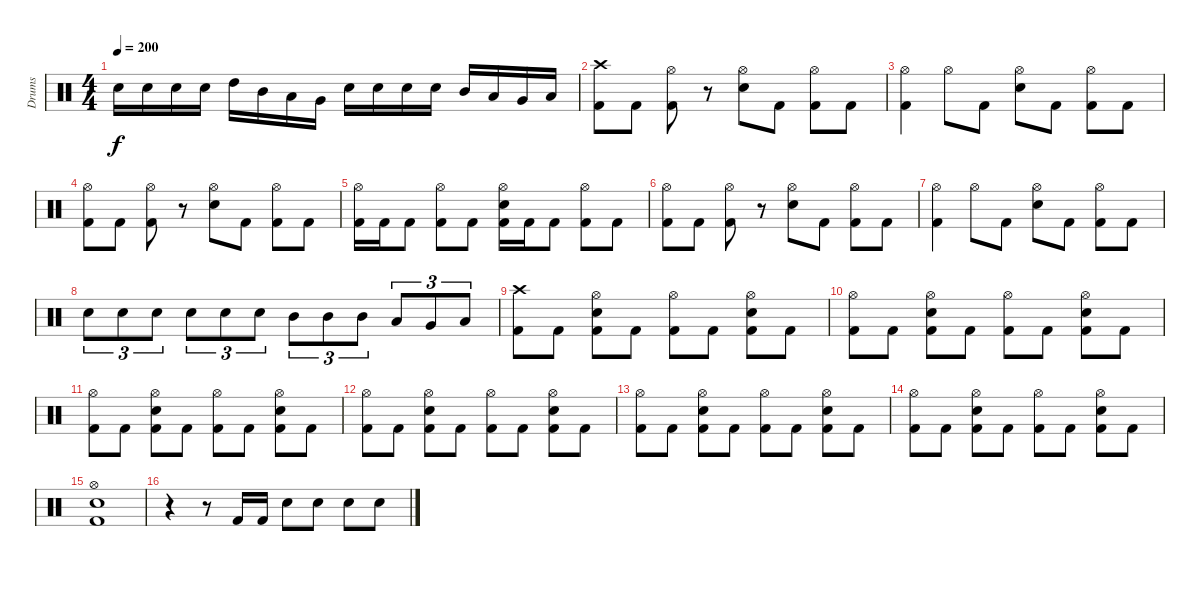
\track ("Drums" "Drums") {instrument percussion}
\staff {score}
\articulation defaults
\ts (4 4)
\tempo 200
\clef neutral
\ks c "Electric Snare (hit)".16{dy f} "Electric Snare (hit)".16 "Electric Snare (hit)".16 "Electric Snare (hit)".16 "High Tom (hit)".16 "Mid Tom (hit)".16 "Low Tom (hit)".16 "Very Low Tom (hit)".16 "Electric Snare (hit)".16 "Electric Snare (hit)".16 "Electric Snare (hit)".16 "Electric Snare (hit)".16 "Mid Tom (hit)".16 "Low Tom (hit)".16 "Very Low Tom (hit)".16 "Low Floor Tom (hit)".16
|
\section ("" "")
("Kick (hit) 2" "Crash high (hit)").8 "Kick (hit) 2".8 ("Kick (hit) 2" "Hi-Hat (open)").8 r.8 ("Electric Snare (hit)" "Hi-Hat (open)").8 "Kick (hit) 2".8 ("Kick (hit) 2" "Hi-Hat (open)").8 "Kick (hit) 2".8 |
("Kick (hit) 2" "Hi-Hat (open)").4 "Hi-Hat (open)".8 "Kick (hit) 2".8 ("Electric Snare (hit)" "Hi-Hat (open)").8 "Kick (hit) 2".8 ("Kick (hit) 2" "Hi-Hat (open)").8 "Kick (hit) 2".8 |
("Kick (hit) 2" "Hi-Hat (open)").8 "Kick (hit) 2".8 ("Kick (hit) 2" "Hi-Hat (open)").8 r.8 ("Electric Snare (hit)" "Hi-Hat (open)").8 "Kick (hit) 2".8 ("Kick (hit) 2" "Hi-Hat (open)").8 "Kick (hit) 2".8 |
("Kick (hit) 2" "Hi-Hat (open)").16 "Kick (hit) 2".16 "Kick (hit) 2".8 ("Kick (hit) 2" "Hi-Hat (open)").8 "Kick (hit) 2".8 ("Kick (hit) 2" "Electric Snare (hit)" "Hi-Hat (open)").16 "Kick (hit) 2".16 "Kick (hit) 2".8 ("Kick (hit) 2" "Hi-Hat (open)").8 "Kick (hit) 2".8 |
("Kick (hit) 2" "Hi-Hat (open)").8 "Kick (hit) 2".8 ("Kick (hit) 2" "Hi-Hat (open)").8 r.8 ("Electric Snare (hit)" "Hi-Hat (open)").8 "Kick (hit) 2".8 ("Kick (hit) 2" "Hi-Hat (open)").8 "Kick (hit) 2".8 |
("Kick (hit) 2" "Hi-Hat (open)").4 "Hi-Hat (open)".8 "Kick (hit) 2".8 ("Electric Snare (hit)" "Hi-Hat (open)").8 "Kick (hit) 2".8 ("Kick (hit) 2" "Hi-Hat (open)").8 "Kick (hit) 2".8 |
"Electric Snare (hit)".8{tu (3 2)} "Electric Snare (hit)".8{tu (3 2)} "Electric Snare (hit)".8{tu (3 2)} "Electric Snare (hit)".8{tu (3 2)} "Electric Snare (hit)".8{tu (3 2)} "Electric Snare (hit)".8{tu (3 2)} "Mid Tom (hit)".8{tu (3 2)} "Mid Tom (hit)".8{tu (3 2)} "Mid Tom (hit)".8{tu (3 2)} "Low Tom (hit)".8{tu (3 2)} "Very Low Tom (hit)".8{tu (3 2)} "Low Floor Tom (hit)".8{tu (3 2)} |
\section ("" "")
("Kick (hit) 2" "Crash high (hit)").8 "Kick (hit) 2".8 ("Kick (hit) 2" "Electric Snare (hit)" "Hi-Hat (open)").8 "Kick (hit) 2".8 ("Kick (hit) 2" "Hi-Hat (open)").8 "Kick (hit) 2".8 ("Kick (hit) 2" "Electric Snare (hit)" "Hi-Hat (open)").8 "Kick (hit) 2".8 |
("Kick (hit) 2" "Hi-Hat (open)").8 "Kick (hit) 2".8 ("Kick (hit) 2" "Electric Snare (hit)" "Hi-Hat (open)").8 "Kick (hit) 2".8 ("Kick (hit) 2" "Hi-Hat (open)").8 "Kick (hit) 2".8 ("Kick (hit) 2" "Electric Snare (hit)" "Hi-Hat (open)").8 "Kick (hit) 2".8 |
("Kick (hit) 2" "Hi-Hat (open)").8 "Kick (hit) 2".8 ("Kick (hit) 2" "Electric Snare (hit)" "Hi-Hat (open)").8 "Kick (hit) 2".8 ("Kick (hit) 2" "Hi-Hat (open)").8 "Kick (hit) 2".8 ("Kick (hit) 2" "Electric Snare (hit)" "Hi-Hat (open)").8 "Kick (hit) 2".8 |
("Kick (hit) 2" "Hi-Hat (open)").8 "Kick (hit) 2".8 ("Kick (hit) 2" "Electric Snare (hit)" "Hi-Hat (open)").8 "Kick (hit) 2".8 ("Kick (hit) 2" "Hi-Hat (open)").8 "Kick (hit) 2".8 ("Kick (hit) 2" "Electric Snare (hit)" "Hi-Hat (open)").8 "Kick (hit) 2".8 |
("Kick (hit) 2" "Hi-Hat (open)").8 "Kick (hit) 2".8 ("Kick (hit) 2" "Electric Snare (hit)" "Hi-Hat (open)").8 "Kick (hit) 2".8 ("Kick (hit) 2" "Hi-Hat (open)").8 "Kick (hit) 2".8 ("Kick (hit) 2" "Electric Snare (hit)" "Hi-Hat (open)").8 "Kick (hit) 2".8 |
("Kick (hit) 2" "Hi-Hat (open)").8 "Kick (hit) 2".8 ("Kick (hit) 2" "Electric Snare (hit)" "Hi-Hat (open)").8 "Kick (hit) 2".8 ("Kick (hit) 2" "Hi-Hat (open)").8 "Kick (hit) 2".8 ("Kick (hit) 2" "Electric Snare (hit)" "Hi-Hat (open)").8 "Kick (hit) 2".8 |
("Kick (hit) 2" "Electric Snare (hit)" "Hi-Hat (open)").1 |
r.4 r.8 "Kick (hit) 2".16 "Kick (hit) 2".16 "Electric Snare (hit)".8 "Electric Snare (hit)".8 "Electric Snare (hit)".8 "Electric Snare (hit)".8
